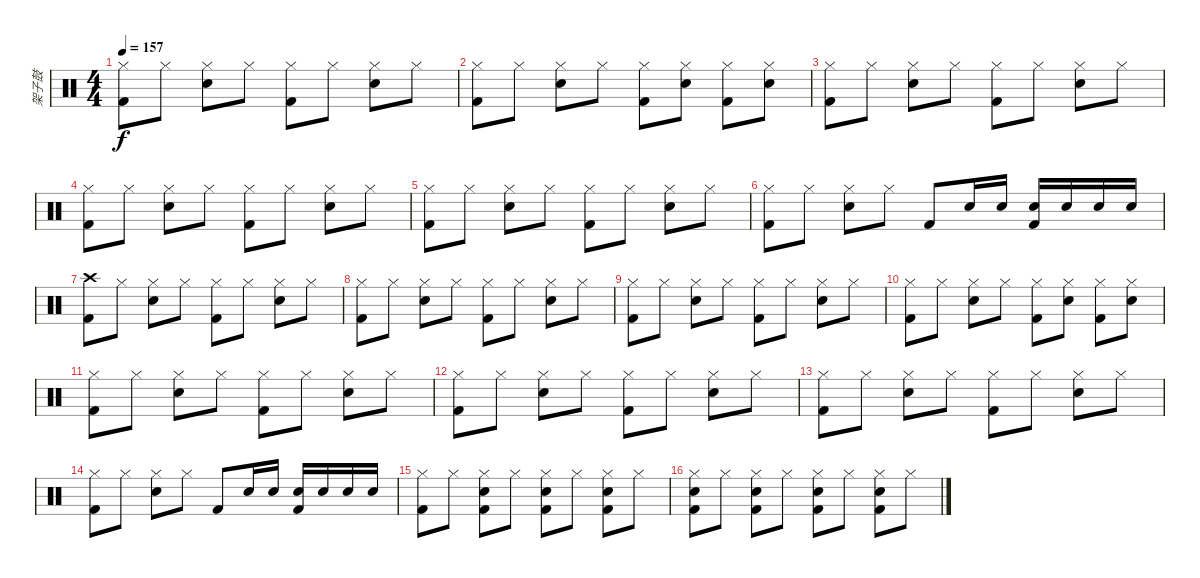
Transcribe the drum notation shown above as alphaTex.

\track ("架子鼓" "架子鼓") {instrument percussion}
\staff {score}
\articulation defaults
\ts (4 4)
\tempo 157
\clef neutral
\ks c
("Hi-Hat (closed)" "Kick (hit) 2").8{dy f} "Hi-Hat (closed)".8 ("Hi-Hat (closed)" "Snare (hit) 2").8 "Hi-Hat (closed)".8 ("Hi-Hat (closed)" "Kick (hit) 2").8 "Hi-Hat (closed)".8 ("Hi-Hat (closed)" "Snare (hit) 2").8 "Hi-Hat (closed)".8 |
("Hi-Hat (closed)" "Kick (hit) 2").8 "Hi-Hat (closed)".8 ("Hi-Hat (closed)" "Snare (hit) 2").8 "Hi-Hat (closed)".8 ("Hi-Hat (closed)" "Kick (hit) 2").8 ("Hi-Hat (closed)" "Snare (hit) 2").8 ("Hi-Hat (closed)" "Kick (hit) 2").8 ("Hi-Hat (closed)" "Snare (hit) 2").8 |
("Hi-Hat (closed)" "Kick (hit) 2").8 "Hi-Hat (closed)".8 ("Hi-Hat (closed)" "Snare (hit) 2").8 "Hi-Hat (closed)".8 ("Hi-Hat (closed)" "Kick (hit) 2").8 "Hi-Hat (closed)".8 ("Hi-Hat (closed)" "Snare (hit) 2").8 "Hi-Hat (closed)".8 |
("Hi-Hat (closed)" "Kick (hit) 2").8 "Hi-Hat (closed)".8 ("Hi-Hat (closed)" "Snare (hit) 2").8 "Hi-Hat (closed)".8 ("Hi-Hat (closed)" "Kick (hit) 2").8 "Hi-Hat (closed)".8 ("Hi-Hat (closed)" "Snare (hit) 2").8 "Hi-Hat (closed)".8 |
("Hi-Hat (closed)" "Kick (hit) 2").8 "Hi-Hat (closed)".8 ("Hi-Hat (closed)" "Snare (hit) 2").8 "Hi-Hat (closed)".8 ("Hi-Hat (closed)" "Kick (hit) 2").8 "Hi-Hat (closed)".8 ("Hi-Hat (closed)" "Snare (hit) 2").8 "Hi-Hat (closed)".8 |
("Hi-Hat (closed)" "Kick (hit) 2").8 "Hi-Hat (closed)".8 ("Hi-Hat (closed)" "Snare (hit) 2").8 "Hi-Hat (closed)".8 "Kick (hit) 2".8 "Snare (hit) 2".16 "Snare (hit) 2".16 ("Snare (hit) 2" "Kick (hit) 2").16 "Snare (hit) 2".16 "Snare (hit) 2".16 "Snare (hit) 2".16 |
("Crash high (hit)" "Kick (hit) 2").8 "Hi-Hat (closed)".8 ("Hi-Hat (closed)" "Snare (hit) 2").8 "Hi-Hat (closed)".8 ("Hi-Hat (closed)" "Kick (hit) 2").8 "Hi-Hat (closed)".8 ("Hi-Hat (closed)" "Snare (hit) 2").8 "Hi-Hat (closed)".8 |
("Hi-Hat (closed)" "Kick (hit) 2").8 "Hi-Hat (closed)".8 ("Hi-Hat (closed)" "Snare (hit) 2").8 "Hi-Hat (closed)".8 ("Hi-Hat (closed)" "Kick (hit) 2").8 "Hi-Hat (closed)".8 ("Hi-Hat (closed)" "Snare (hit) 2").8 "Hi-Hat (closed)".8 |
("Hi-Hat (closed)" "Kick (hit) 2").8 "Hi-Hat (closed)".8 ("Hi-Hat (closed)" "Snare (hit) 2").8 "Hi-Hat (closed)".8 ("Hi-Hat (closed)" "Kick (hit) 2").8 "Hi-Hat (closed)".8 ("Hi-Hat (closed)" "Snare (hit) 2").8 "Hi-Hat (closed)".8 |
("Hi-Hat (closed)" "Kick (hit) 2").8 "Hi-Hat (closed)".8 ("Hi-Hat (closed)" "Snare (hit) 2").8 "Hi-Hat (closed)".8 ("Hi-Hat (closed)" "Kick (hit) 2").8 ("Hi-Hat (closed)" "Snare (hit) 2").8 ("Hi-Hat (closed)" "Kick (hit) 2").8 ("Hi-Hat (closed)" "Snare (hit) 2").8 |
("Hi-Hat (closed)" "Kick (hit) 2").8 "Hi-Hat (closed)".8 ("Hi-Hat (closed)" "Snare (hit) 2").8 "Hi-Hat (closed)".8 ("Hi-Hat (closed)" "Kick (hit) 2").8 "Hi-Hat (closed)".8 ("Hi-Hat (closed)" "Snare (hit) 2").8 "Hi-Hat (closed)".8 |
("Hi-Hat (closed)" "Kick (hit) 2").8 "Hi-Hat (closed)".8 ("Hi-Hat (closed)" "Snare (hit) 2").8 "Hi-Hat (closed)".8 ("Hi-Hat (closed)" "Kick (hit) 2").8 "Hi-Hat (closed)".8 ("Hi-Hat (closed)" "Snare (hit) 2").8 "Hi-Hat (closed)".8 |
("Hi-Hat (closed)" "Kick (hit) 2").8 "Hi-Hat (closed)".8 ("Hi-Hat (closed)" "Snare (hit) 2").8 "Hi-Hat (closed)".8 ("Hi-Hat (closed)" "Kick (hit) 2").8 "Hi-Hat (closed)".8 ("Hi-Hat (closed)" "Snare (hit) 2").8 "Hi-Hat (closed)".8 |
("Hi-Hat (closed)" "Kick (hit) 2").8 "Hi-Hat (closed)".8 ("Hi-Hat (closed)" "Snare (hit) 2").8 "Hi-Hat (closed)".8 "Kick (hit) 2".8 "Snare (hit) 2".16 "Snare (hit) 2".16 ("Snare (hit) 2" "Kick (hit) 2").16 "Snare (hit) 2".16 "Snare (hit) 2".16 "Snare (hit) 2".16 |
("Hi-Hat (closed)" "Kick (hit) 2").8 "Hi-Hat (closed)".8 ("Hi-Hat (closed)" "Snare (hit) 2" "Kick (hit) 2").8 "Hi-Hat (closed)".8 ("Hi-Hat (closed)" "Snare (hit) 2" "Kick (hit) 2").8 "Hi-Hat (closed)".8 ("Hi-Hat (closed)" "Snare (hit) 2" "Kick (hit) 2").8 "Hi-Hat (closed)".8 |
("Hi-Hat (closed)" "Snare (hit) 2" "Kick (hit) 2").8 "Hi-Hat (closed)".8 ("Hi-Hat (closed)" "Snare (hit) 2" "Kick (hit) 2").8 "Hi-Hat (closed)".8 ("Hi-Hat (closed)" "Snare (hit) 2" "Kick (hit) 2").8 "Hi-Hat (closed)".8 ("Hi-Hat (closed)" "Snare (hit) 2" "Kick (hit) 2").8 "Hi-Hat (closed)".8
